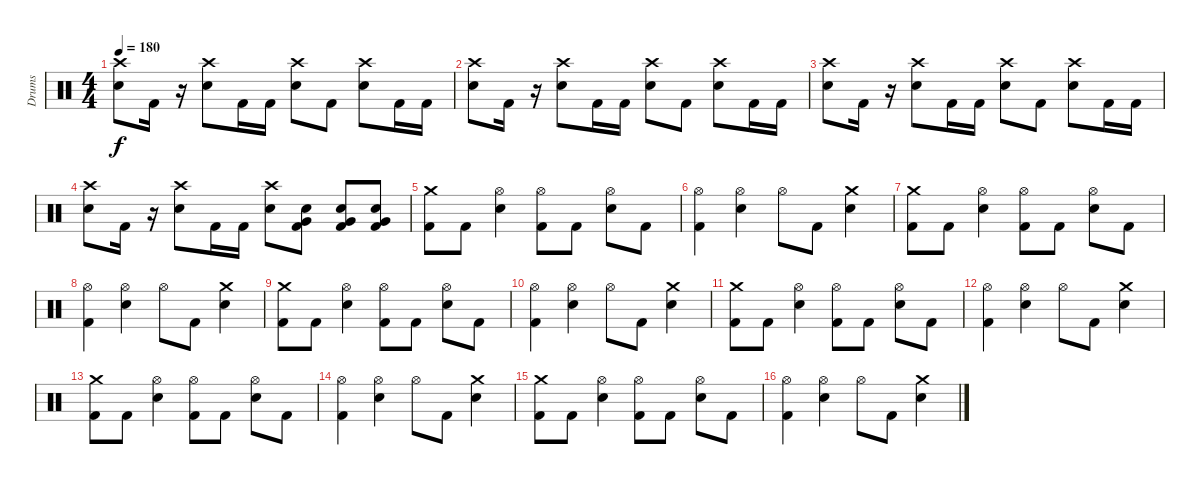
\track ("Drums" "Drums") {instrument percussion}
\staff {score}
\articulation defaults
\ts (4 4)
\tempo 180
\clef neutral
\ks c
("Electric Snare (hit)" "Crash high (hit)").8{dy f} "Kick (hit) 2".16 r.16 ("Electric Snare (hit)" "Crash high (hit)").8 "Kick (hit) 2".16 "Kick (hit) 2".16 ("Electric Snare (hit)" "Crash high (hit)").8 "Kick (hit) 2".8 ("Electric Snare (hit)" "Crash high (hit)").8 "Kick (hit) 2".16 "Kick (hit) 2".16 |
("Electric Snare (hit)" "Crash high (hit)").8 "Kick (hit) 2".16 r.16 ("Electric Snare (hit)" "Crash high (hit)").8 "Kick (hit) 2".16 "Kick (hit) 2".16 ("Electric Snare (hit)" "Crash high (hit)").8 "Kick (hit) 2".8 ("Electric Snare (hit)" "Crash high (hit)").8 "Kick (hit) 2".16 "Kick (hit) 2".16 |
("Electric Snare (hit)" "Crash high (hit)").8 "Kick (hit) 2".16 r.16 ("Electric Snare (hit)" "Crash high (hit)").8 "Kick (hit) 2".16 "Kick (hit) 2".16 ("Electric Snare (hit)" "Crash high (hit)").8 "Kick (hit) 2".8 ("Electric Snare (hit)" "Crash high (hit)").8 "Kick (hit) 2".16 "Kick (hit) 2".16 |
("Electric Snare (hit)" "Crash high (hit)").8 "Kick (hit) 2".16 r.16 ("Electric Snare (hit)" "Crash high (hit)").8 "Kick (hit) 2".16 "Kick (hit) 2".16 ("Electric Snare (hit)" "Crash high (hit)").8 ("Very Low Tom (hit)" "Electric Snare (hit)" "Kick (hit) 2").8 ("Kick (hit) 2" "Very Low Tom (hit)" "Electric Snare (hit)").8 ("Kick (hit) 2" "Very Low Tom (hit)" "Electric Snare (hit)").8 |
("Kick (hit) 2" "Crash medium (hit)").8 "Kick (hit) 2".8 ("Electric Snare (hit)" "Hi-Hat (open)").4 ("Kick (hit) 2" "Hi-Hat (open)").8 "Kick (hit) 2".8 ("Electric Snare (hit)" "Hi-Hat (open)").8 "Kick (hit) 2".8 |
("Kick (hit) 2" "Hi-Hat (open)").4 ("Electric Snare (hit)" "Hi-Hat (open)").4 "Hi-Hat (open)".8 "Kick (hit) 2".8 ("Electric Snare (hit)" "Crash medium (hit)").4 |
("Kick (hit) 2" "Crash medium (hit)").8 "Kick (hit) 2".8 ("Electric Snare (hit)" "Hi-Hat (open)").4 ("Kick (hit) 2" "Hi-Hat (open)").8 "Kick (hit) 2".8 ("Electric Snare (hit)" "Hi-Hat (open)").8 "Kick (hit) 2".8 |
("Kick (hit) 2" "Hi-Hat (open)").4 ("Electric Snare (hit)" "Hi-Hat (open)").4 "Hi-Hat (open)".8 "Kick (hit) 2".8 ("Electric Snare (hit)" "Crash medium (hit)").4 |
("Kick (hit) 2" "Crash medium (hit)").8 "Kick (hit) 2".8 ("Electric Snare (hit)" "Hi-Hat (open)").4 ("Kick (hit) 2" "Hi-Hat (open)").8 "Kick (hit) 2".8 ("Electric Snare (hit)" "Hi-Hat (open)").8 "Kick (hit) 2".8 |
("Kick (hit) 2" "Hi-Hat (open)").4 ("Electric Snare (hit)" "Hi-Hat (open)").4 "Hi-Hat (open)".8 "Kick (hit) 2".8 ("Electric Snare (hit)" "Crash medium (hit)").4 |
("Kick (hit) 2" "Crash medium (hit)").8 "Kick (hit) 2".8 ("Electric Snare (hit)" "Hi-Hat (open)").4 ("Kick (hit) 2" "Hi-Hat (open)").8 "Kick (hit) 2".8 ("Electric Snare (hit)" "Hi-Hat (open)").8 "Kick (hit) 2".8 |
("Kick (hit) 2" "Hi-Hat (open)").4 ("Electric Snare (hit)" "Hi-Hat (open)").4 "Hi-Hat (open)".8 "Kick (hit) 2".8 ("Electric Snare (hit)" "Crash medium (hit)").4 |
("Kick (hit) 2" "Crash medium (hit)").8 "Kick (hit) 2".8 ("Electric Snare (hit)" "Hi-Hat (open)").4 ("Kick (hit) 2" "Hi-Hat (open)").8 "Kick (hit) 2".8 ("Electric Snare (hit)" "Hi-Hat (open)").8 "Kick (hit) 2".8 |
("Kick (hit) 2" "Hi-Hat (open)").4 ("Electric Snare (hit)" "Hi-Hat (open)").4 "Hi-Hat (open)".8 "Kick (hit) 2".8 ("Electric Snare (hit)" "Crash medium (hit)").4 |
("Kick (hit) 2" "Crash medium (hit)").8 "Kick (hit) 2".8 ("Electric Snare (hit)" "Hi-Hat (open)").4 ("Kick (hit) 2" "Hi-Hat (open)").8 "Kick (hit) 2".8 ("Electric Snare (hit)" "Hi-Hat (open)").8 "Kick (hit) 2".8 |
("Kick (hit) 2" "Hi-Hat (open)").4 ("Electric Snare (hit)" "Hi-Hat (open)").4 "Hi-Hat (open)".8 "Kick (hit) 2".8 ("Electric Snare (hit)" "Crash medium (hit)").4
